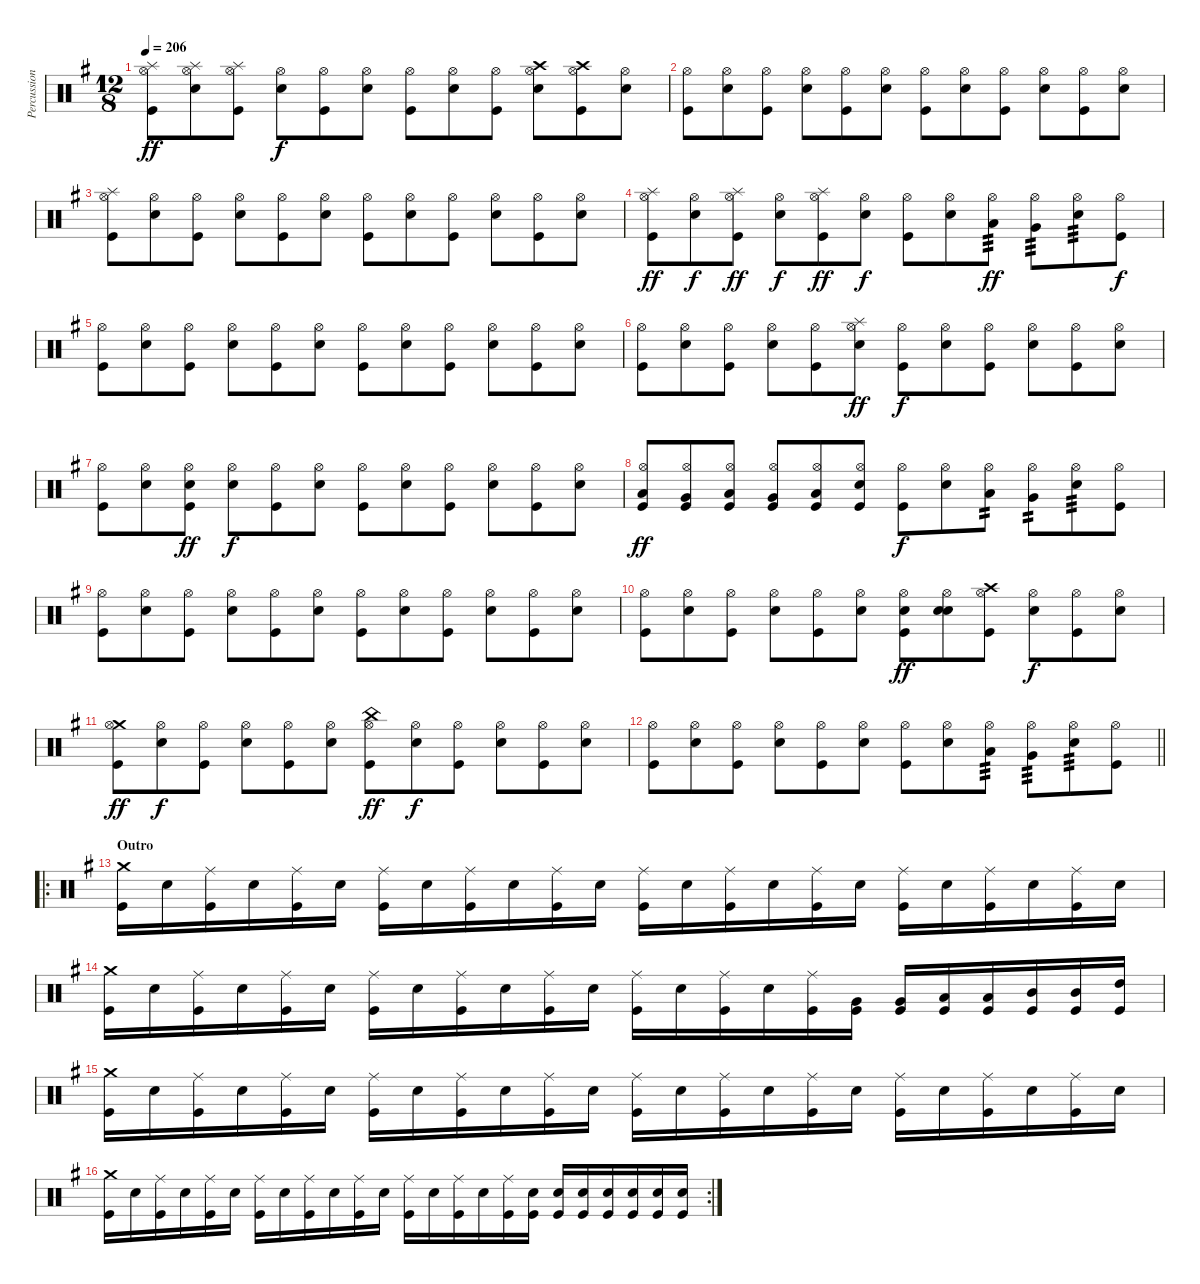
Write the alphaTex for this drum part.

\track ("Percussion" "Percussion") {instrument percussion}
\staff {score}
\articulation defaults
\ts (12 8)
\tempo 206
\clef neutral
\ks g
("Kick (hit)" "Splash (hit)" "Hi-Hat (open)").8{dy ff} ("Electric Snare (hit)" "Splash (hit)" "Hi-Hat (open)").8 ("Kick (hit)" "Splash (hit)" "Hi-Hat (open)").8 ("Electric Snare (hit)" "Hi-Hat (open)").8{dy f} ("Kick (hit)" "Hi-Hat (open)").8 ("Electric Snare (hit)" "Hi-Hat (open)").8 ("Kick (hit)" "Hi-Hat (open)").8 ("Electric Snare (hit)" "Hi-Hat (open)").8 ("Kick (hit)" "Hi-Hat (open)").8 ("Electric Snare (hit)" "Crash high (hit)" "Hi-Hat (open)").8 ("Kick (hit)" "Crash high (hit)" "Hi-Hat (open)").8 ("Electric Snare (hit)" "Hi-Hat (open)").8 |
("Kick (hit)" "Hi-Hat (open)").8 ("Electric Snare (hit)" "Hi-Hat (open)").8 ("Kick (hit)" "Hi-Hat (open)").8 ("Electric Snare (hit)" "Hi-Hat (open)").8 ("Kick (hit)" "Hi-Hat (open)").8 ("Electric Snare (hit)" "Hi-Hat (open)").8 ("Kick (hit)" "Hi-Hat (open)").8 ("Electric Snare (hit)" "Hi-Hat (open)").8 ("Kick (hit)" "Hi-Hat (open)").8 ("Electric Snare (hit)" "Hi-Hat (open)").8 ("Kick (hit)" "Hi-Hat (open)").8 ("Electric Snare (hit)" "Hi-Hat (open)").8 |
("Kick (hit)" "Splash (hit)" "Hi-Hat (open)").8 ("Electric Snare (hit)" "Hi-Hat (open)").8 ("Kick (hit)" "Hi-Hat (open)").8 ("Electric Snare (hit)" "Hi-Hat (open)").8 ("Kick (hit)" "Hi-Hat (open)").8 ("Electric Snare (hit)" "Hi-Hat (open)").8 ("Kick (hit)" "Hi-Hat (open)").8 ("Electric Snare (hit)" "Hi-Hat (open)").8 ("Kick (hit)" "Hi-Hat (open)").8 ("Electric Snare (hit)" "Hi-Hat (open)").8 ("Kick (hit)" "Hi-Hat (open)").8 ("Electric Snare (hit)" "Hi-Hat (open)").8 |
("Kick (hit)" "Splash (hit)" "Hi-Hat (open)").8{dy ff} ("Electric Snare (hit)" "Hi-Hat (open)").8{dy f} ("Kick (hit)" "Splash (hit)" "Hi-Hat (open)").8{dy ff} ("Electric Snare (hit)" "Hi-Hat (open)").8{dy f} ("Kick (hit)" "Splash (hit)" "Hi-Hat (open)").8{dy ff} ("Electric Snare (hit)" "Hi-Hat (open)").8{dy f} ("Kick (hit)" "Hi-Hat (open)").8 ("Electric Snare (hit)" "Hi-Hat (open)").8 ("Low Tom (hit)" "Hi-Hat (open)").8{tp 3 dy ff} ("Very Low Tom (hit)" "Hi-Hat (open)").8{tp 3} ("Electric Snare (hit)" "Hi-Hat (open)").8{tp 3} ("Kick (hit)" "Hi-Hat (open)").8{dy f} |
("Kick (hit)" "Hi-Hat (open)").8 ("Electric Snare (hit)" "Hi-Hat (open)").8 ("Kick (hit)" "Hi-Hat (open)").8 ("Electric Snare (hit)" "Hi-Hat (open)").8 ("Kick (hit)" "Hi-Hat (open)").8 ("Electric Snare (hit)" "Hi-Hat (open)").8 ("Kick (hit)" "Hi-Hat (open)").8 ("Electric Snare (hit)" "Hi-Hat (open)").8 ("Kick (hit)" "Hi-Hat (open)").8 ("Electric Snare (hit)" "Hi-Hat (open)").8 ("Kick (hit)" "Hi-Hat (open)").8 ("Electric Snare (hit)" "Hi-Hat (open)").8 |
("Kick (hit)" "Hi-Hat (open)").8 ("Electric Snare (hit)" "Hi-Hat (open)").8 ("Kick (hit)" "Hi-Hat (open)").8 ("Electric Snare (hit)" "Hi-Hat (open)").8 ("Kick (hit)" "Hi-Hat (open)").8 ("Electric Snare (hit)" "Splash (hit)" "Hi-Hat (open)").8{dy ff} ("Kick (hit)" "Hi-Hat (open)").8{dy f} ("Electric Snare (hit)" "Hi-Hat (open)").8 ("Kick (hit)" "Hi-Hat (open)").8 ("Electric Snare (hit)" "Hi-Hat (open)").8 ("Kick (hit)" "Hi-Hat (open)").8 ("Electric Snare (hit)" "Hi-Hat (open)").8 |
("Kick (hit)" "Hi-Hat (open)").8 ("Electric Snare (hit)" "Hi-Hat (open)").8 ("Kick (hit)" "Electric Snare (hit)" "Hi-Hat (open)").8{dy ff} ("Electric Snare (hit)" "Hi-Hat (open)").8{dy f} ("Kick (hit)" "Hi-Hat (open)").8 ("Electric Snare (hit)" "Hi-Hat (open)").8 ("Kick (hit)" "Hi-Hat (open)").8 ("Electric Snare (hit)" "Hi-Hat (open)").8 ("Kick (hit)" "Hi-Hat (open)").8 ("Electric Snare (hit)" "Hi-Hat (open)").8 ("Kick (hit)" "Hi-Hat (open)").8 ("Electric Snare (hit)" "Hi-Hat (open)").8 |
("Low Tom (hit)" "Kick (hit)" "Hi-Hat (open)").8{dy ff} ("Very Low Tom (hit)" "Kick (hit)" "Hi-Hat (open)").8 ("Low Tom (hit)" "Kick (hit)" "Hi-Hat (open)").8 ("Very Low Tom (hit)" "Kick (hit)" "Hi-Hat (open)").8 ("Low Tom (hit)" "Kick (hit)" "Hi-Hat (open)").8 ("Electric Snare (hit)" "Kick (hit)" "Hi-Hat (open)").8 ("Kick (hit)" "Hi-Hat (open)").8{dy f} ("Electric Snare (hit)" "Hi-Hat (open)").8 ("Low Tom (hit)" "Hi-Hat (open)").8{tp 2} ("Very Low Tom (hit)" "Hi-Hat (open)").8{tp 2} ("Electric Snare (hit)" "Hi-Hat (open)").8{tp 3} ("Kick (hit)" "Hi-Hat (open)").8 |
("Kick (hit)" "Hi-Hat (open)").8 ("Electric Snare (hit)" "Hi-Hat (open)").8 ("Kick (hit)" "Hi-Hat (open)").8 ("Electric Snare (hit)" "Hi-Hat (open)").8 ("Kick (hit)" "Hi-Hat (open)").8 ("Electric Snare (hit)" "Hi-Hat (open)").8 ("Kick (hit)" "Hi-Hat (open)").8 ("Electric Snare (hit)" "Hi-Hat (open)").8 ("Kick (hit)" "Hi-Hat (open)").8 ("Electric Snare (hit)" "Hi-Hat (open)").8 ("Kick (hit)" "Hi-Hat (open)").8 ("Electric Snare (hit)" "Hi-Hat (open)").8 |
("Kick (hit)" "Hi-Hat (open)").8 ("Electric Snare (hit)" "Hi-Hat (open)").8 ("Kick (hit)" "Hi-Hat (open)").8 ("Electric Snare (hit)" "Hi-Hat (open)").8 ("Kick (hit)" "Hi-Hat (open)").8 ("Electric Snare (hit)" "Hi-Hat (open)").8 ("Kick (hit)" "Electric Snare (hit)" "Hi-Hat (open)").8{dy ff} ("Electric Snare (hit)" "Electric Snare (hit)" "Hi-Hat (open)").8 ("Kick (hit)" "Crash high (hit)" "Hi-Hat (open)").8 ("Electric Snare (hit)" "Hi-Hat (open)").8{dy f} ("Kick (hit)" "Hi-Hat (open)").8 ("Electric Snare (hit)" "Hi-Hat (open)").8 |
("Kick (hit)" "Crash medium (hit)" "Hi-Hat (open)").8{dy ff} ("Electric Snare (hit)" "Hi-Hat (open)").8{dy f} ("Kick (hit)" "Hi-Hat (open)").8 ("Electric Snare (hit)" "Hi-Hat (open)").8 ("Kick (hit)" "Hi-Hat (open)").8 ("Electric Snare (hit)" "Hi-Hat (open)").8 ("Kick (hit)" "China (hit)" "Hi-Hat (open)").8{dy ff} ("Electric Snare (hit)" "Hi-Hat (open)").8{dy f} ("Kick (hit)" "Hi-Hat (open)").8 ("Electric Snare (hit)" "Hi-Hat (open)").8 ("Kick (hit)" "Hi-Hat (open)").8 ("Electric Snare (hit)" "Hi-Hat (open)").8 |
\barLineRight lightlight
("Kick (hit)" "Hi-Hat (open)").8 ("Electric Snare (hit)" "Hi-Hat (open)").8 ("Kick (hit)" "Hi-Hat (open)").8 ("Electric Snare (hit)" "Hi-Hat (open)").8 ("Kick (hit)" "Hi-Hat (open)").8 ("Electric Snare (hit)" "Hi-Hat (open)").8 ("Kick (hit)" "Hi-Hat (open)").8 ("Electric Snare (hit)" "Hi-Hat (open)").8 ("Low Tom (hit)" "Hi-Hat (open)").8{tp 3} ("Very Low Tom (hit)" "Hi-Hat (open)").8{tp 3} ("Electric Snare (hit)" "Hi-Hat (open)").8{tp 3} ("Kick (hit)" "Hi-Hat (open)").8 |
\ro
\section ("" "Outro")
("Kick (hit)" "Crash medium (hit)").16 "Electric Snare (hit)".16 ("Kick (hit)" "Ride (middle)").16 "Electric Snare (hit)".16 ("Kick (hit)" "Ride (middle)").16 "Electric Snare (hit)".16 ("Kick (hit)" "Ride (middle)").16 "Electric Snare (hit)".16 ("Kick (hit)" "Ride (middle)").16 "Electric Snare (hit)".16 ("Kick (hit)" "Ride (middle)").16 "Electric Snare (hit)".16 ("Kick (hit)" "Ride (middle)").16 "Electric Snare (hit)".16 ("Kick (hit)" "Ride (middle)").16 "Electric Snare (hit)".16 ("Kick (hit)" "Ride (middle)").16 "Electric Snare (hit)".16 ("Kick (hit)" "Ride (middle)").16 "Electric Snare (hit)".16 ("Kick (hit)" "Ride (middle)").16 "Electric Snare (hit)".16 ("Kick (hit)" "Ride (middle)").16 "Electric Snare (hit)".16 |
("Kick (hit)" "Crash medium (hit)").16 "Electric Snare (hit)".16 ("Kick (hit)" "Ride (middle)").16 "Electric Snare (hit)".16 ("Kick (hit)" "Ride (middle)").16 "Electric Snare (hit)".16 ("Kick (hit)" "Ride (middle)").16 "Electric Snare (hit)".16 ("Kick (hit)" "Ride (middle)").16 "Electric Snare (hit)".16 ("Kick (hit)" "Ride (middle)").16 "Electric Snare (hit)".16 ("Kick (hit)" "Ride (middle)").16 "Electric Snare (hit)".16 ("Kick (hit)" "Ride (middle)").16 "Electric Snare (hit)".16 ("Kick (hit)" "Ride (middle)").16 ("Kick (hit)" "Very Low Tom (hit)").16 ("Kick (hit)" "Very Low Tom (hit)").16 ("Kick (hit)" "Low Tom (hit)").16 ("Kick (hit)" "Low Tom (hit)").16 ("Kick (hit)" "Mid Tom (hit)").16 ("Kick (hit)" "Mid Tom (hit)").16 ("Kick (hit)" "High Tom (hit)").16 |
("Kick (hit)" "Crash medium (hit)").16 "Electric Snare (hit)".16 ("Kick (hit)" "Ride (middle)").16 "Electric Snare (hit)".16 ("Kick (hit)" "Ride (middle)").16 "Electric Snare (hit)".16 ("Kick (hit)" "Ride (middle)").16 "Electric Snare (hit)".16 ("Kick (hit)" "Ride (middle)").16 "Electric Snare (hit)".16 ("Kick (hit)" "Ride (middle)").16 "Electric Snare (hit)".16 ("Kick (hit)" "Ride (middle)").16 "Electric Snare (hit)".16 ("Kick (hit)" "Ride (middle)").16 "Electric Snare (hit)".16 ("Kick (hit)" "Ride (middle)").16 "Electric Snare (hit)".16 ("Kick (hit)" "Ride (middle)").16 "Electric Snare (hit)".16 ("Kick (hit)" "Ride (middle)").16 "Electric Snare (hit)".16 ("Kick (hit)" "Ride (middle)").16 "Electric Snare (hit)".16 |
\rc 2
("Kick (hit)" "Crash medium (hit)").16 "Electric Snare (hit)".16 ("Kick (hit)" "Ride (middle)").16 "Electric Snare (hit)".16 ("Kick (hit)" "Ride (middle)").16 "Electric Snare (hit)".16 ("Kick (hit)" "Ride (middle)").16 "Electric Snare (hit)".16 ("Kick (hit)" "Ride (middle)").16 "Electric Snare (hit)".16 ("Kick (hit)" "Ride (middle)").16 "Electric Snare (hit)".16 ("Kick (hit)" "Ride (middle)").16 "Electric Snare (hit)".16 ("Kick (hit)" "Ride (middle)").16 "Electric Snare (hit)".16 ("Kick (hit)" "Ride (middle)").16 ("Kick (hit)" "Electric Snare (hit)").16 ("Kick (hit)" "Electric Snare (hit)").16 ("Kick (hit)" "Electric Snare (hit)").16 ("Kick (hit)" "Electric Snare (hit)").16 ("Kick (hit)" "Electric Snare (hit)").16 ("Kick (hit)" "Electric Snare (hit)").16 ("Kick (hit)" "Electric Snare (hit)").16
